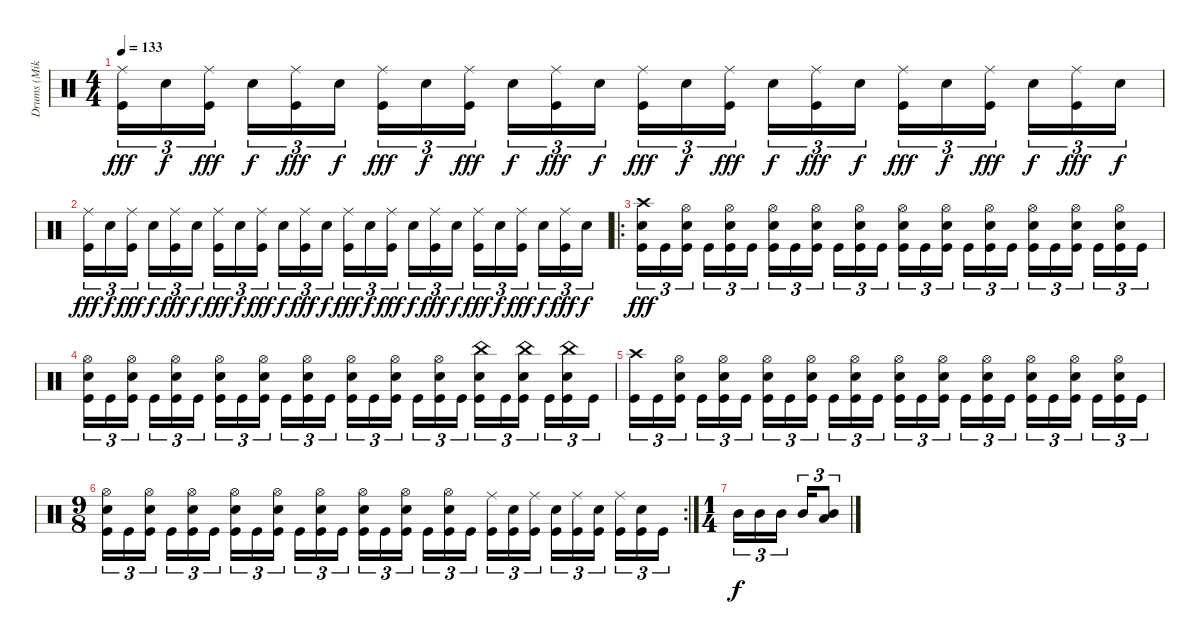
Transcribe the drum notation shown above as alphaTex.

\track ("Drums (Mike)" "Drums (Mik") {instrument percussion}
\staff {score}
\articulation defaults
\ts (4 4)
\tempo 133
\clef neutral
\ks c
("Ride (middle)" "Kick (hit)").16{tu (3 2) dy fff} "Electric Snare (hit)".16{tu (3 2) dy f} ("Ride (middle)" "Kick (hit)").16{tu (3 2) dy fff} "Electric Snare (hit)".16{tu (3 2) dy f} ("Ride (middle)" "Kick (hit)").16{tu (3 2) dy fff} "Electric Snare (hit)".16{tu (3 2) dy f} ("Ride (middle)" "Kick (hit)").16{tu (3 2) dy fff} "Electric Snare (hit)".16{tu (3 2) dy f} ("Ride (middle)" "Kick (hit)").16{tu (3 2) dy fff} "Electric Snare (hit)".16{tu (3 2) dy f} ("Ride (middle)" "Kick (hit)").16{tu (3 2) dy fff} "Electric Snare (hit)".16{tu (3 2) dy f} ("Ride (middle)" "Kick (hit)").16{tu (3 2) dy fff} "Electric Snare (hit)".16{tu (3 2) dy f} ("Ride (middle)" "Kick (hit)").16{tu (3 2) dy fff} "Electric Snare (hit)".16{tu (3 2) dy f} ("Ride (middle)" "Kick (hit)").16{tu (3 2) dy fff} "Electric Snare (hit)".16{tu (3 2) dy f} ("Ride (middle)" "Kick (hit)").16{tu (3 2) dy fff} "Electric Snare (hit)".16{tu (3 2) dy f} ("Ride (middle)" "Kick (hit)").16{tu (3 2) dy fff} "Electric Snare (hit)".16{tu (3 2) dy f} ("Ride (middle)" "Kick (hit)").16{tu (3 2) dy fff} "Electric Snare (hit)".16{tu (3 2) dy f} |
("Ride (middle)" "Kick (hit)").16{tu (3 2) dy fff} "Electric Snare (hit)".16{tu (3 2) dy f} ("Ride (middle)" "Kick (hit)").16{tu (3 2) dy fff} "Electric Snare (hit)".16{tu (3 2) dy f} ("Ride (middle)" "Kick (hit)").16{tu (3 2) dy fff} "Electric Snare (hit)".16{tu (3 2) dy f} ("Ride (middle)" "Kick (hit)").16{tu (3 2) dy fff} "Electric Snare (hit)".16{tu (3 2) dy f} ("Ride (middle)" "Kick (hit)").16{tu (3 2) dy fff} "Electric Snare (hit)".16{tu (3 2) dy f} ("Ride (middle)" "Kick (hit)").16{tu (3 2) dy fff} "Electric Snare (hit)".16{tu (3 2) dy f} ("Ride (middle)" "Kick (hit)").16{tu (3 2) dy fff} "Electric Snare (hit)".16{tu (3 2) dy f} ("Ride (middle)" "Kick (hit)").16{tu (3 2) dy fff} "Electric Snare (hit)".16{tu (3 2) dy f} ("Ride (middle)" "Kick (hit)").16{tu (3 2) dy fff} "Electric Snare (hit)".16{tu (3 2) dy f} ("Ride (middle)" "Kick (hit)").16{tu (3 2) dy fff} "Electric Snare (hit)".16{tu (3 2) dy f} ("Ride (middle)" "Kick (hit)").16{tu (3 2) dy fff} "Electric Snare (hit)".16{tu (3 2) dy f} ("Ride (middle)" "Kick (hit)").16{tu (3 2) dy fff} "Electric Snare (hit)".16{tu (3 2) dy f} |
\ro
("Crash high (hit)" "Electric Snare (hit)" "Kick (hit)").16{tu (3 2) dy fff} "Kick (hit)".16{tu (3 2)} ("Hi-Hat (open)" "Electric Snare (hit)" "Kick (hit)").16{tu (3 2)} "Kick (hit)".16{tu (3 2)} ("Hi-Hat (open)" "Electric Snare (hit)" "Kick (hit)").16{tu (3 2)} "Kick (hit)".16{tu (3 2)} ("Hi-Hat (open)" "Electric Snare (hit)" "Kick (hit)").16{tu (3 2)} "Kick (hit)".16{tu (3 2)} ("Hi-Hat (open)" "Electric Snare (hit)" "Kick (hit)").16{tu (3 2)} "Kick (hit)".16{tu (3 2)} ("Hi-Hat (open)" "Electric Snare (hit)" "Kick (hit)").16{tu (3 2)} "Kick (hit)".16{tu (3 2)} ("Hi-Hat (open)" "Electric Snare (hit)" "Kick (hit)").16{tu (3 2)} "Kick (hit)".16{tu (3 2)} ("Hi-Hat (open)" "Electric Snare (hit)" "Kick (hit)").16{tu (3 2)} "Kick (hit)".16{tu (3 2)} ("Hi-Hat (open)" "Electric Snare (hit)" "Kick (hit)").16{tu (3 2)} "Kick (hit)".16{tu (3 2)} ("Hi-Hat (open)" "Electric Snare (hit)" "Kick (hit)").16{tu (3 2)} "Kick (hit)".16{tu (3 2)} ("Hi-Hat (open)" "Electric Snare (hit)" "Kick (hit)").16{tu (3 2)} "Kick (hit)".16{tu (3 2)} ("Hi-Hat (open)" "Electric Snare (hit)" "Kick (hit)").16{tu (3 2)} "Kick (hit)".16{tu (3 2)} |
("Hi-Hat (open)" "Electric Snare (hit)" "Kick (hit)").16{tu (3 2)} "Kick (hit)".16{tu (3 2)} ("Hi-Hat (open)" "Electric Snare (hit)" "Kick (hit)").16{tu (3 2)} "Kick (hit)".16{tu (3 2)} ("Hi-Hat (open)" "Electric Snare (hit)" "Kick (hit)").16{tu (3 2)} "Kick (hit)".16{tu (3 2)} ("Hi-Hat (open)" "Electric Snare (hit)" "Kick (hit)").16{tu (3 2)} "Kick (hit)".16{tu (3 2)} ("Hi-Hat (open)" "Electric Snare (hit)" "Kick (hit)").16{tu (3 2)} "Kick (hit)".16{tu (3 2)} ("Hi-Hat (open)" "Electric Snare (hit)" "Kick (hit)").16{tu (3 2)} "Kick (hit)".16{tu (3 2)} ("Hi-Hat (open)" "Electric Snare (hit)" "Kick (hit)").16{tu (3 2)} "Kick (hit)".16{tu (3 2)} ("Hi-Hat (open)" "Electric Snare (hit)" "Kick (hit)").16{tu (3 2)} "Kick (hit)".16{tu (3 2)} ("Hi-Hat (open)" "Electric Snare (hit)" "Kick (hit)").16{tu (3 2)} "Kick (hit)".16{tu (3 2)} ("China (hit)" "Electric Snare (hit)" "Kick (hit)").16{tu (3 2)} "Kick (hit)".16{tu (3 2)} ("China (hit)" "Electric Snare (hit)" "Kick (hit)").16{tu (3 2)} "Kick (hit)".16{tu (3 2)} ("China (hit)" "Electric Snare (hit)" "Kick (hit)").16{tu (3 2)} "Kick (hit)".16{tu (3 2)} |
("Crash high (hit)" "Kick (hit)").16{tu (3 2)} "Kick (hit)".16{tu (3 2)} ("Hi-Hat (open)" "Electric Snare (hit)" "Kick (hit)").16{tu (3 2)} "Kick (hit)".16{tu (3 2)} ("Hi-Hat (open)" "Electric Snare (hit)" "Kick (hit)").16{tu (3 2)} "Kick (hit)".16{tu (3 2)} ("Hi-Hat (open)" "Electric Snare (hit)" "Kick (hit)").16{tu (3 2)} "Kick (hit)".16{tu (3 2)} ("Hi-Hat (open)" "Electric Snare (hit)" "Kick (hit)").16{tu (3 2)} "Kick (hit)".16{tu (3 2)} ("Hi-Hat (open)" "Electric Snare (hit)" "Kick (hit)").16{tu (3 2)} "Kick (hit)".16{tu (3 2)} ("Hi-Hat (open)" "Electric Snare (hit)" "Kick (hit)").16{tu (3 2)} "Kick (hit)".16{tu (3 2)} ("Hi-Hat (open)" "Electric Snare (hit)" "Kick (hit)").16{tu (3 2)} "Kick (hit)".16{tu (3 2)} ("Hi-Hat (open)" "Electric Snare (hit)" "Kick (hit)").16{tu (3 2)} "Kick (hit)".16{tu (3 2)} ("Hi-Hat (open)" "Electric Snare (hit)" "Kick (hit)").16{tu (3 2)} "Kick (hit)".16{tu (3 2)} ("Hi-Hat (open)" "Electric Snare (hit)" "Kick (hit)").16{tu (3 2)} "Kick (hit)".16{tu (3 2)} ("Hi-Hat (open)" "Electric Snare (hit)" "Kick (hit)").16{tu (3 2)} "Kick (hit)".16{tu (3 2)} |
\rc 2
\ts (9 8)
("Hi-Hat (open)" "Electric Snare (hit)" "Kick (hit)").16{tu (3 2)} "Kick (hit)".16{tu (3 2)} ("Hi-Hat (open)" "Electric Snare (hit)" "Kick (hit)").16{tu (3 2)} "Kick (hit)".16{tu (3 2)} ("Hi-Hat (open)" "Electric Snare (hit)" "Kick (hit)").16{tu (3 2)} "Kick (hit)".16{tu (3 2)} ("Hi-Hat (open)" "Electric Snare (hit)" "Kick (hit)").16{tu (3 2)} "Kick (hit)".16{tu (3 2)} ("Hi-Hat (open)" "Electric Snare (hit)" "Kick (hit)").16{tu (3 2)} "Kick (hit)".16{tu (3 2)} ("Hi-Hat (open)" "Electric Snare (hit)" "Kick (hit)").16{tu (3 2)} "Kick (hit)".16{tu (3 2)} ("Hi-Hat (open)" "Electric Snare (hit)" "Kick (hit)").16{tu (3 2)} "Kick (hit)".16{tu (3 2)} ("Hi-Hat (open)" "Electric Snare (hit)" "Kick (hit)").16{tu (3 2)} "Kick (hit)".16{tu (3 2)} ("Hi-Hat (open)" "Electric Snare (hit)" "Kick (hit)").16{tu (3 2)} "Kick (hit)".16{tu (3 2)} ("Ride (middle)" "Kick (hit)").16{tu (3 2)} ("Electric Snare (hit)" "Kick (hit)").16{tu (3 2)} ("Ride (middle)" "Kick (hit)").16{tu (3 2)} ("Electric Snare (hit)" "Kick (hit)").16{tu (3 2)} ("Ride (middle)" "Kick (hit)").16{tu (3 2)} ("Electric Snare (hit)" "Kick (hit)").16{tu (3 2)} ("Ride (middle)" "Kick (hit)").16{tu (3 2)} ("Electric Snare (hit)" "Kick (hit)").16{tu (3 2)} "Kick (hit)".16{tu (3 2)} |
\ts (1 4)
"Mid Tom (hit)".16{tu (3 2) dy f} "Mid Tom (hit)".16{tu (3 2)} "Mid Tom (hit)".16{tu (3 2)} "Mid Tom (hit)".16{tu (3 2)} ("Low Tom (hit)" "Mid Tom (hit)").8{tu (3 2)}
